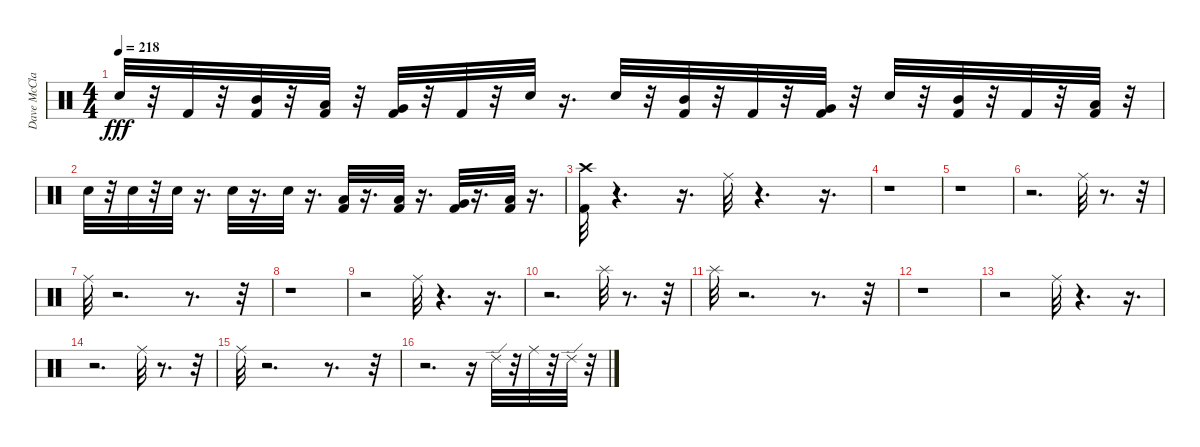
\track ("Dave McClain" "Dave McCla") {instrument percussion}
\staff {score}
\articulation defaults
\ts (4 4)
\tempo 218
\clef neutral
\ks c "Snare (hit) 2".32{dy fff}
r.32 "Kick (hit) 2".32 r.32 ("Mid Tom (hit)" "Kick (hit) 2").32 r.32 ("Low Tom (hit)" "Kick (hit) 2").32 r.32 ("Very Low Tom (hit)" "Kick (hit) 2").32 r.32 "Kick (hit) 2".32 r.32 "Snare (hit) 2".32 r.16{d} "Snare (hit) 2".32 r.32 ("Mid Tom (hit)" "Kick (hit) 2").32 r.32 "Kick (hit) 2".32 r.32 ("Very Low Tom (hit)" "Kick (hit) 2").32 r.32 "Snare (hit) 2".32 r.32 ("Mid Tom (hit)" "Kick (hit) 2").32 r.32 "Kick (hit) 2".32 r.32 ("Low Tom (hit)" "Kick (hit) 2").32 r.32 |
"Snare (hit) 2".32 r.32 "Snare (hit) 2".32 r.32 "Snare (hit) 2".32 r.16{d} "Snare (hit) 2".32 r.16{d} "Snare (hit) 2".32 r.16{d} ("Kick (hit) 2" "Low Tom (hit)").32 r.16{d} ("Kick (hit) 2" "Low Tom (hit)").32 r.16{d} ("Kick (hit) 2" "Very Low Tom (hit)").32 r.16{d} ("Kick (hit) 2" "Low Floor Tom (hit)").32 r.16{d} |
("Crash high (hit)" "Kick (hit) 2").32 r.4{d} r.16{d} "Ride (middle)".32 r.4{d} r.16{d} |
r.1 |
r.1 |
r.2{d} "Ride (middle)".32 r.8{d} r.32 |
"Ride (middle)".32 r.2{d} r.8{d} r.32 |
r.1 |
r.2 "Ride (middle)".32 r.4{d} r.16{d} |
r.2{d} "Splash (hit)".32 r.8{d} r.32 |
"Splash (hit)".32 r.2{d} r.8{d} r.32 |
r.1 |
r.2 "Ride (middle)".32 r.4{d} r.16{d} |
r.2{d} "Ride (middle)".32 r.8{d} r.32 |
"Ride (middle)".32 r.2{d} r.8{d} r.32 |
r.2{d} r.16 "Ride (edge) 2".32 r.32 "Ride (middle)".32 r.32 "Ride (edge) 2".32 r.32
